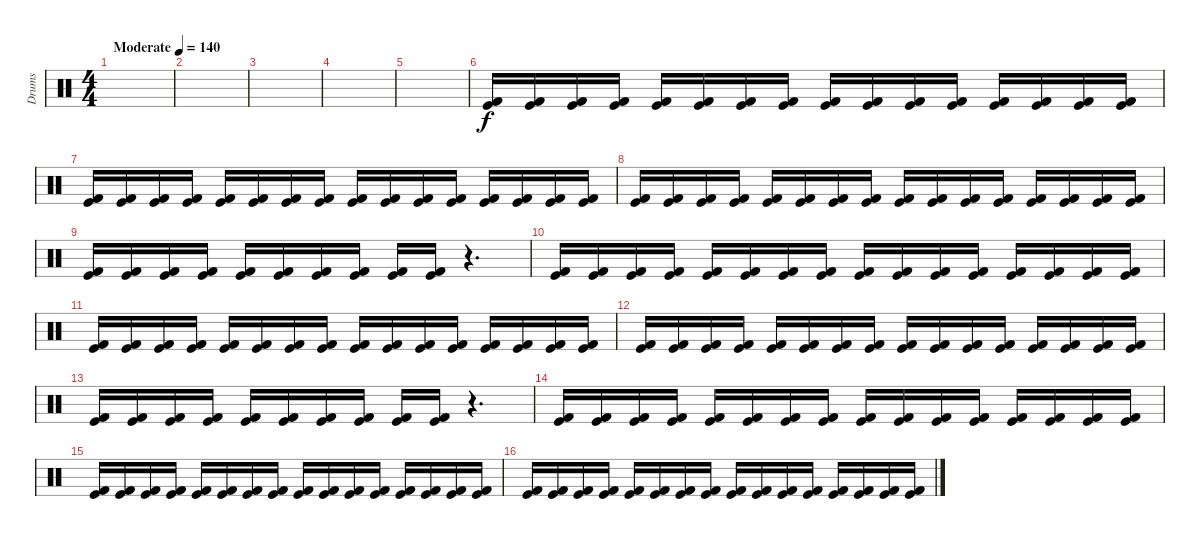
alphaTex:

\track ("Drums" "Drums") {instrument percussion}
\staff {score}
\articulation defaults
\ts (4 4)
\tempo (140 "Moderate")
\clef neutral
\ks c
|
|
|
|
|
("Kick (hit) 2" "Kick (hit)").16 ("Kick (hit) 2" "Kick (hit)").16 ("Kick (hit) 2" "Kick (hit)").16 ("Kick (hit) 2" "Kick (hit)").16 ("Kick (hit) 2" "Kick (hit)").16 ("Kick (hit) 2" "Kick (hit)").16 ("Kick (hit) 2" "Kick (hit)").16 ("Kick (hit) 2" "Kick (hit)").16 ("Kick (hit) 2" "Kick (hit)").16 ("Kick (hit) 2" "Kick (hit)").16 ("Kick (hit) 2" "Kick (hit)").16 ("Kick (hit) 2" "Kick (hit)").16 ("Kick (hit) 2" "Kick (hit)").16 ("Kick (hit) 2" "Kick (hit)").16 ("Kick (hit) 2" "Kick (hit)").16 ("Kick (hit) 2" "Kick (hit)").16 |
("Kick (hit) 2" "Kick (hit)").16 ("Kick (hit) 2" "Kick (hit)").16 ("Kick (hit) 2" "Kick (hit)").16 ("Kick (hit) 2" "Kick (hit)").16 ("Kick (hit) 2" "Kick (hit)").16 ("Kick (hit) 2" "Kick (hit)").16 ("Kick (hit) 2" "Kick (hit)").16 ("Kick (hit) 2" "Kick (hit)").16 ("Kick (hit) 2" "Kick (hit)").16 ("Kick (hit) 2" "Kick (hit)").16 ("Kick (hit) 2" "Kick (hit)").16 ("Kick (hit) 2" "Kick (hit)").16 ("Kick (hit) 2" "Kick (hit)").16 ("Kick (hit) 2" "Kick (hit)").16 ("Kick (hit) 2" "Kick (hit)").16 ("Kick (hit) 2" "Kick (hit)").16 |
("Kick (hit) 2" "Kick (hit)").16 ("Kick (hit) 2" "Kick (hit)").16 ("Kick (hit) 2" "Kick (hit)").16 ("Kick (hit) 2" "Kick (hit)").16 ("Kick (hit) 2" "Kick (hit)").16 ("Kick (hit) 2" "Kick (hit)").16 ("Kick (hit) 2" "Kick (hit)").16 ("Kick (hit) 2" "Kick (hit)").16 ("Kick (hit) 2" "Kick (hit)").16 ("Kick (hit) 2" "Kick (hit)").16 ("Kick (hit) 2" "Kick (hit)").16 ("Kick (hit) 2" "Kick (hit)").16 ("Kick (hit) 2" "Kick (hit)").16 ("Kick (hit) 2" "Kick (hit)").16 ("Kick (hit) 2" "Kick (hit)").16 ("Kick (hit) 2" "Kick (hit)").16 |
("Kick (hit) 2" "Kick (hit)").16 ("Kick (hit) 2" "Kick (hit)").16 ("Kick (hit) 2" "Kick (hit)").16 ("Kick (hit) 2" "Kick (hit)").16 ("Kick (hit) 2" "Kick (hit)").16 ("Kick (hit) 2" "Kick (hit)").16 ("Kick (hit) 2" "Kick (hit)").16 ("Kick (hit) 2" "Kick (hit)").16 ("Kick (hit) 2" "Kick (hit)").16 ("Kick (hit) 2" "Kick (hit)").16 r.4{d} |
("Kick (hit) 2" "Kick (hit)").16 ("Kick (hit) 2" "Kick (hit)").16 ("Kick (hit) 2" "Kick (hit)").16 ("Kick (hit) 2" "Kick (hit)").16 ("Kick (hit) 2" "Kick (hit)").16 ("Kick (hit) 2" "Kick (hit)").16 ("Kick (hit) 2" "Kick (hit)").16 ("Kick (hit) 2" "Kick (hit)").16 ("Kick (hit) 2" "Kick (hit)").16 ("Kick (hit) 2" "Kick (hit)").16 ("Kick (hit) 2" "Kick (hit)").16 ("Kick (hit) 2" "Kick (hit)").16 ("Kick (hit) 2" "Kick (hit)").16 ("Kick (hit) 2" "Kick (hit)").16 ("Kick (hit) 2" "Kick (hit)").16 ("Kick (hit) 2" "Kick (hit)").16 |
("Kick (hit) 2" "Kick (hit)").16 ("Kick (hit) 2" "Kick (hit)").16 ("Kick (hit) 2" "Kick (hit)").16 ("Kick (hit) 2" "Kick (hit)").16 ("Kick (hit) 2" "Kick (hit)").16 ("Kick (hit) 2" "Kick (hit)").16 ("Kick (hit) 2" "Kick (hit)").16 ("Kick (hit) 2" "Kick (hit)").16 ("Kick (hit) 2" "Kick (hit)").16 ("Kick (hit) 2" "Kick (hit)").16 ("Kick (hit) 2" "Kick (hit)").16 ("Kick (hit) 2" "Kick (hit)").16 ("Kick (hit) 2" "Kick (hit)").16 ("Kick (hit) 2" "Kick (hit)").16 ("Kick (hit) 2" "Kick (hit)").16 ("Kick (hit) 2" "Kick (hit)").16 |
("Kick (hit) 2" "Kick (hit)").16 ("Kick (hit) 2" "Kick (hit)").16 ("Kick (hit) 2" "Kick (hit)").16 ("Kick (hit) 2" "Kick (hit)").16 ("Kick (hit) 2" "Kick (hit)").16 ("Kick (hit) 2" "Kick (hit)").16 ("Kick (hit) 2" "Kick (hit)").16 ("Kick (hit) 2" "Kick (hit)").16 ("Kick (hit) 2" "Kick (hit)").16 ("Kick (hit) 2" "Kick (hit)").16 ("Kick (hit) 2" "Kick (hit)").16 ("Kick (hit) 2" "Kick (hit)").16 ("Kick (hit) 2" "Kick (hit)").16 ("Kick (hit) 2" "Kick (hit)").16 ("Kick (hit) 2" "Kick (hit)").16 ("Kick (hit) 2" "Kick (hit)").16 |
("Kick (hit) 2" "Kick (hit)").16 ("Kick (hit) 2" "Kick (hit)").16 ("Kick (hit) 2" "Kick (hit)").16 ("Kick (hit) 2" "Kick (hit)").16 ("Kick (hit) 2" "Kick (hit)").16 ("Kick (hit) 2" "Kick (hit)").16 ("Kick (hit) 2" "Kick (hit)").16 ("Kick (hit) 2" "Kick (hit)").16 ("Kick (hit) 2" "Kick (hit)").16 ("Kick (hit) 2" "Kick (hit)").16 r.4{d} |
("Kick (hit) 2" "Kick (hit)").16 ("Kick (hit) 2" "Kick (hit)").16 ("Kick (hit) 2" "Kick (hit)").16 ("Kick (hit) 2" "Kick (hit)").16 ("Kick (hit) 2" "Kick (hit)").16 ("Kick (hit) 2" "Kick (hit)").16 ("Kick (hit) 2" "Kick (hit)").16 ("Kick (hit) 2" "Kick (hit)").16 ("Kick (hit) 2" "Kick (hit)").16 ("Kick (hit) 2" "Kick (hit)").16 ("Kick (hit) 2" "Kick (hit)").16 ("Kick (hit) 2" "Kick (hit)").16 ("Kick (hit) 2" "Kick (hit)").16 ("Kick (hit) 2" "Kick (hit)").16 ("Kick (hit) 2" "Kick (hit)").16 ("Kick (hit) 2" "Kick (hit)").16 |
("Kick (hit) 2" "Kick (hit)").16 ("Kick (hit) 2" "Kick (hit)").16 ("Kick (hit) 2" "Kick (hit)").16 ("Kick (hit) 2" "Kick (hit)").16 ("Kick (hit) 2" "Kick (hit)").16 ("Kick (hit) 2" "Kick (hit)").16 ("Kick (hit) 2" "Kick (hit)").16 ("Kick (hit) 2" "Kick (hit)").16 ("Kick (hit) 2" "Kick (hit)").16 ("Kick (hit) 2" "Kick (hit)").16 ("Kick (hit) 2" "Kick (hit)").16 ("Kick (hit) 2" "Kick (hit)").16 ("Kick (hit) 2" "Kick (hit)").16 ("Kick (hit) 2" "Kick (hit)").16 ("Kick (hit) 2" "Kick (hit)").16 ("Kick (hit) 2" "Kick (hit)").16 |
("Kick (hit) 2" "Kick (hit)").16 ("Kick (hit) 2" "Kick (hit)").16 ("Kick (hit) 2" "Kick (hit)").16 ("Kick (hit) 2" "Kick (hit)").16 ("Kick (hit) 2" "Kick (hit)").16 ("Kick (hit) 2" "Kick (hit)").16 ("Kick (hit) 2" "Kick (hit)").16 ("Kick (hit) 2" "Kick (hit)").16 ("Kick (hit) 2" "Kick (hit)").16 ("Kick (hit) 2" "Kick (hit)").16 ("Kick (hit) 2" "Kick (hit)").16 ("Kick (hit) 2" "Kick (hit)").16 ("Kick (hit) 2" "Kick (hit)").16 ("Kick (hit) 2" "Kick (hit)").16 ("Kick (hit) 2" "Kick (hit)").16 ("Kick (hit) 2" "Kick (hit)").16
